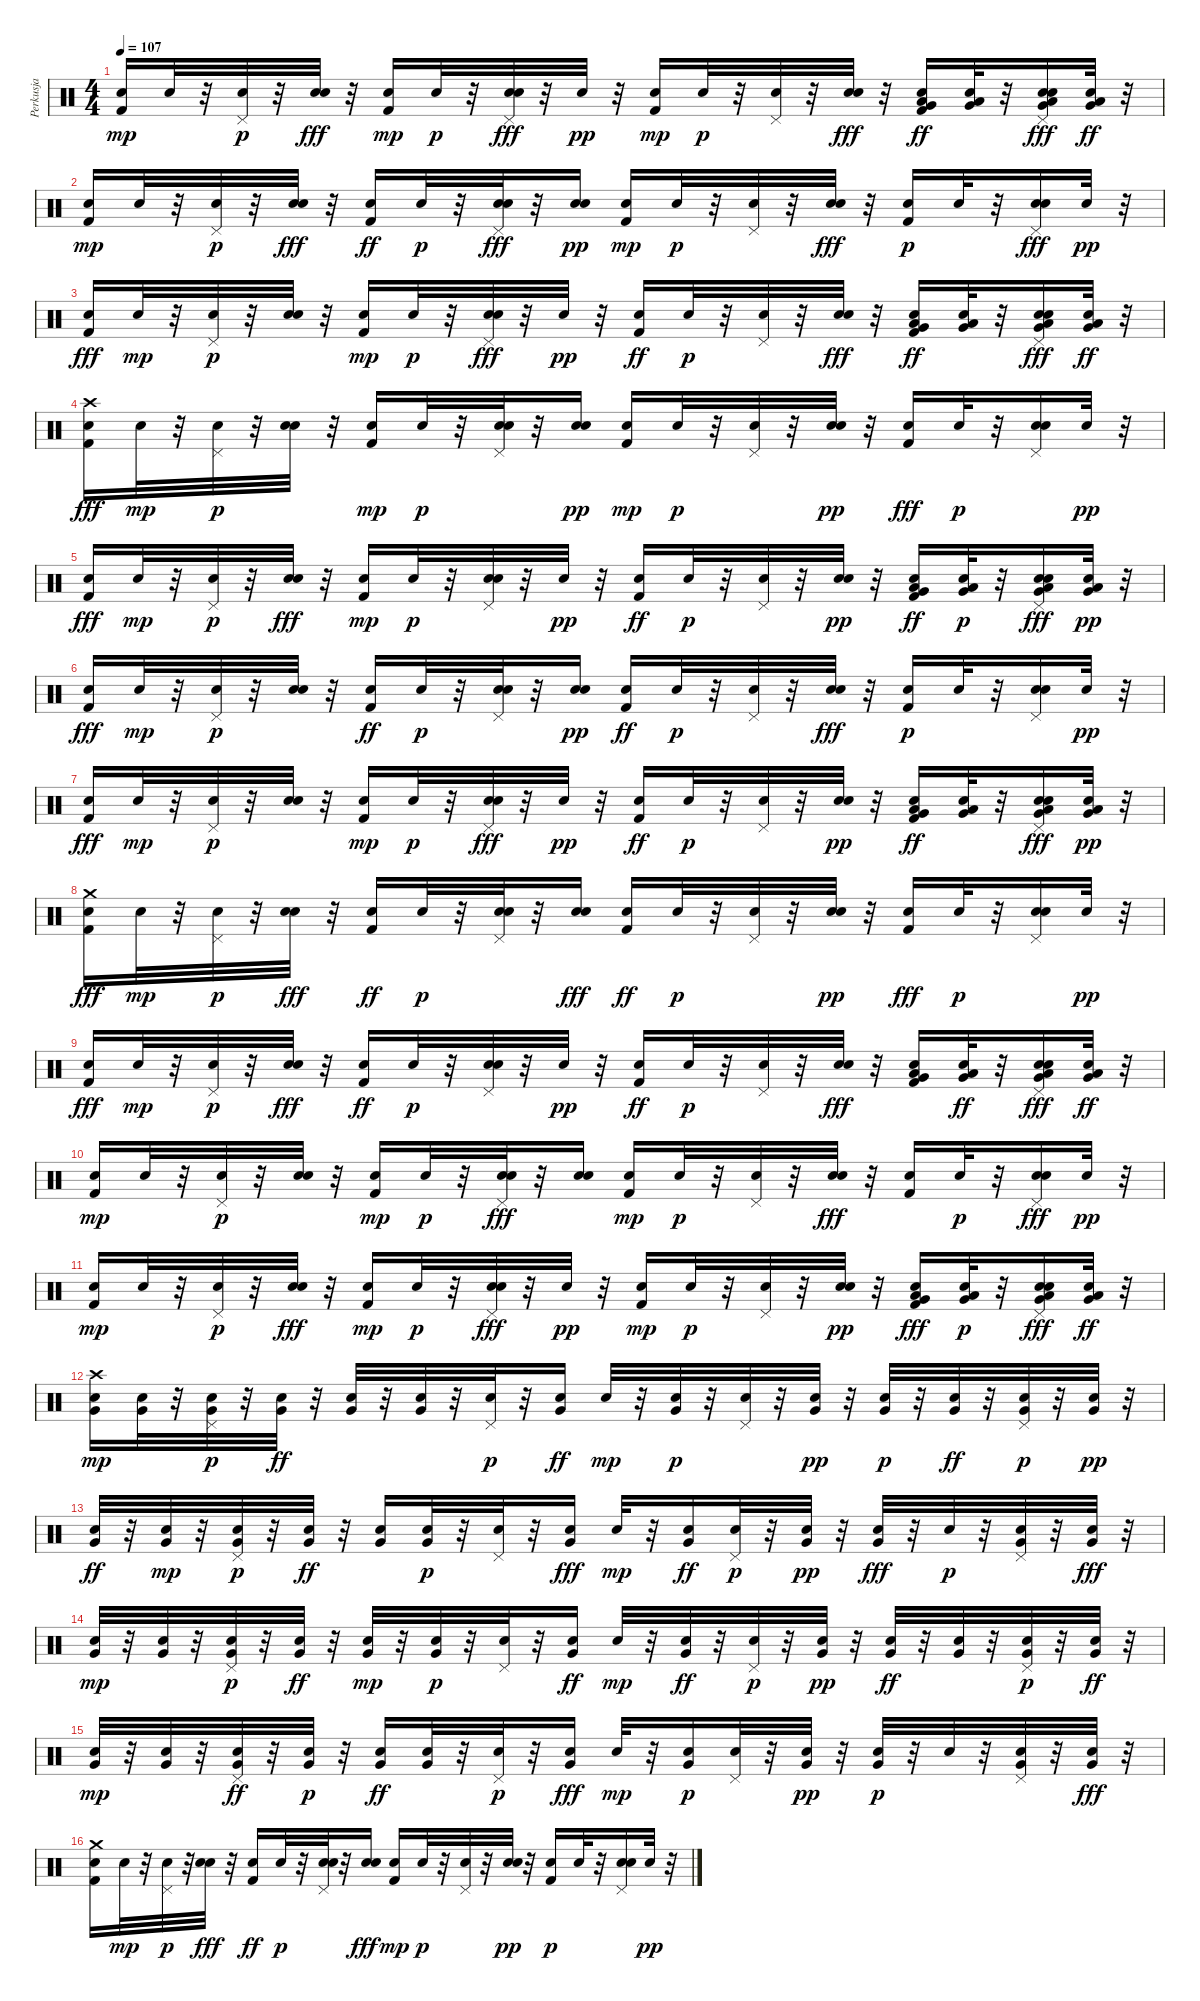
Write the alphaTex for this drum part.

\track ("Perkusja" "Perkusja") {instrument percussion}
\staff {score}
\articulation defaults
\ts (4 4)
\tempo 107
\clef neutral
\ks c
("Kick (hit) 2" "Snare (hit) 2").16{dy mp} "Snare (hit) 2".32 r.32 ("Pedal Hi-Hat (hit)" "Snare (hit) 2").32{dy p} r.32 ("Snare (hit) 2" "Electric Snare (hit)").32{dy fff} r.32 ("Kick (hit) 2" "Snare (hit) 2").16{dy mp} "Snare (hit) 2".32{dy p} r.32 ("Pedal Hi-Hat (hit)" "Snare (hit) 2" "Electric Snare (hit)").32{dy fff} r.32 "Snare (hit) 2".32{dy pp} r.32 ("Kick (hit) 2" "Snare (hit) 2").16{dy mp} "Snare (hit) 2".32{dy p} r.32 ("Snare (hit) 2" "Pedal Hi-Hat (hit)").32 r.32 ("Snare (hit) 2" "Electric Snare (hit)").32{dy fff} r.32 ("Low Floor Tom (hit)" "Kick (hit) 2" "Snare (hit) 2" "Very Low Tom (hit)").16{dy ff} ("Snare (hit) 2" "Very Low Tom (hit)" "Low Floor Tom (hit)").32 r.32 ("Snare (hit) 2" "Pedal Hi-Hat (hit)" "Very Low Tom (hit)" "Low Floor Tom (hit)" "Electric Snare (hit)").16{dy fff} ("Very Low Tom (hit)" "Snare (hit) 2" "Low Floor Tom (hit)").32{dy ff} r.32 |
("Kick (hit) 2" "Snare (hit) 2").16{dy mp} "Snare (hit) 2".32 r.32 ("Snare (hit) 2" "Pedal Hi-Hat (hit)").32{dy p} r.32 ("Snare (hit) 2" "Electric Snare (hit)").32{dy fff} r.32 ("Snare (hit) 2" "Kick (hit) 2").16{dy ff} "Snare (hit) 2".32{dy p} r.32 ("Snare (hit) 2" "Electric Snare (hit)" "Pedal Hi-Hat (hit)").32{dy fff} r.32 ("Electric Snare (hit)" "Snare (hit) 2").16{dy pp} ("Kick (hit) 2" "Snare (hit) 2").16{dy mp} "Snare (hit) 2".32{dy p} r.32 ("Pedal Hi-Hat (hit)" "Snare (hit) 2").32 r.32 ("Snare (hit) 2" "Electric Snare (hit)").32{dy fff} r.32 ("Kick (hit) 2" "Snare (hit) 2").16{dy p} "Snare (hit) 2".32 r.32 ("Snare (hit) 2" "Electric Snare (hit)" "Pedal Hi-Hat (hit)").16{dy fff} "Snare (hit) 2".32{dy pp} r.32 |
("Snare (hit) 2" "Kick (hit) 2").16{dy fff} "Snare (hit) 2".32{dy mp} r.32 ("Snare (hit) 2" "Pedal Hi-Hat (hit)").32{dy p} r.32 ("Electric Snare (hit)" "Snare (hit) 2").32 r.32 ("Kick (hit) 2" "Snare (hit) 2").16{dy mp} "Snare (hit) 2".32{dy p} r.32 ("Snare (hit) 2" "Pedal Hi-Hat (hit)" "Electric Snare (hit)").32{dy fff} r.32 "Snare (hit) 2".32{dy pp} r.32 ("Snare (hit) 2" "Kick (hit) 2").16{dy ff} "Snare (hit) 2".32{dy p} r.32 ("Pedal Hi-Hat (hit)" "Snare (hit) 2").32 r.32 ("Snare (hit) 2" "Electric Snare (hit)").32{dy fff} r.32 ("Kick (hit) 2" "Snare (hit) 2" "Low Floor Tom (hit)" "Very Low Tom (hit)").16{dy ff} ("Snare (hit) 2" "Low Floor Tom (hit)" "Very Low Tom (hit)").32 r.32 ("Pedal Hi-Hat (hit)" "Electric Snare (hit)" "Snare (hit) 2" "Low Floor Tom (hit)" "Very Low Tom (hit)").16{dy fff} ("Snare (hit) 2" "Very Low Tom (hit)" "Low Floor Tom (hit)").32{dy ff} r.32 |
("Crash high (hit)" "Snare (hit) 2" "Kick (hit) 2").16{dy fff} "Snare (hit) 2".32{dy mp} r.32 ("Snare (hit) 2" "Pedal Hi-Hat (hit)").32{dy p} r.32 ("Electric Snare (hit)" "Snare (hit) 2").32 r.32 ("Kick (hit) 2" "Snare (hit) 2").16{dy mp} "Snare (hit) 2".32{dy p} r.32 ("Pedal Hi-Hat (hit)" "Electric Snare (hit)" "Snare (hit) 2").32 r.32 ("Electric Snare (hit)" "Snare (hit) 2").16{dy pp} ("Kick (hit) 2" "Snare (hit) 2").16{dy mp} "Snare (hit) 2".32{dy p} r.32 ("Snare (hit) 2" "Pedal Hi-Hat (hit)").32 r.32 ("Electric Snare (hit)" "Snare (hit) 2").32{dy pp} r.32 ("Snare (hit) 2" "Kick (hit) 2").16{dy fff} "Snare (hit) 2".32{dy p} r.32 ("Electric Snare (hit)" "Snare (hit) 2" "Pedal Hi-Hat (hit)").16 "Snare (hit) 2".32{dy pp} r.32 |
("Snare (hit) 2" "Kick (hit) 2").16{dy fff} "Snare (hit) 2".32{dy mp} r.32 ("Pedal Hi-Hat (hit)" "Snare (hit) 2").32{dy p} r.32 ("Snare (hit) 2" "Electric Snare (hit)").32{dy fff} r.32 ("Kick (hit) 2" "Snare (hit) 2").16{dy mp} "Snare (hit) 2".32{dy p} r.32 ("Electric Snare (hit)" "Snare (hit) 2" "Pedal Hi-Hat (hit)").32 r.32 "Snare (hit) 2".32{dy pp} r.32 ("Snare (hit) 2" "Kick (hit) 2").16{dy ff} "Snare (hit) 2".32{dy p} r.32 ("Pedal Hi-Hat (hit)" "Snare (hit) 2").32 r.32 ("Electric Snare (hit)" "Snare (hit) 2").32{dy pp} r.32 ("Low Floor Tom (hit)" "Snare (hit) 2" "Kick (hit) 2" "Very Low Tom (hit)").16{dy ff} ("Low Floor Tom (hit)" "Very Low Tom (hit)" "Snare (hit) 2").32{dy p} r.32 ("Electric Snare (hit)" "Pedal Hi-Hat (hit)" "Snare (hit) 2" "Very Low Tom (hit)" "Low Floor Tom (hit)").16{dy fff} ("Very Low Tom (hit)" "Low Floor Tom (hit)" "Snare (hit) 2").32{dy pp} r.32 |
("Snare (hit) 2" "Kick (hit) 2").16{dy fff} "Snare (hit) 2".32{dy mp} r.32 ("Pedal Hi-Hat (hit)" "Snare (hit) 2").32{dy p} r.32 ("Electric Snare (hit)" "Snare (hit) 2").32 r.32 ("Snare (hit) 2" "Kick (hit) 2").16{dy ff} "Snare (hit) 2".32{dy p} r.32 ("Pedal Hi-Hat (hit)" "Electric Snare (hit)" "Snare (hit) 2").32 r.32 ("Electric Snare (hit)" "Snare (hit) 2").16{dy pp} ("Snare (hit) 2" "Kick (hit) 2").16{dy ff} "Snare (hit) 2".32{dy p} r.32 ("Snare (hit) 2" "Pedal Hi-Hat (hit)").32 r.32 ("Snare (hit) 2" "Electric Snare (hit)").32{dy fff} r.32 ("Kick (hit) 2" "Snare (hit) 2").16{dy p} "Snare (hit) 2".32 r.32 ("Electric Snare (hit)" "Pedal Hi-Hat (hit)" "Snare (hit) 2").16 "Snare (hit) 2".32{dy pp} r.32 |
("Snare (hit) 2" "Kick (hit) 2").16{dy fff} "Snare (hit) 2".32{dy mp} r.32 ("Snare (hit) 2" "Pedal Hi-Hat (hit)").32{dy p} r.32 ("Electric Snare (hit)" "Snare (hit) 2").32 r.32 ("Kick (hit) 2" "Snare (hit) 2").16{dy mp} "Snare (hit) 2".32{dy p} r.32 ("Pedal Hi-Hat (hit)" "Snare (hit) 2" "Electric Snare (hit)").32{dy fff} r.32 "Snare (hit) 2".32{dy pp} r.32 ("Snare (hit) 2" "Kick (hit) 2").16{dy ff} "Snare (hit) 2".32{dy p} r.32 ("Snare (hit) 2" "Pedal Hi-Hat (hit)").32 r.32 ("Electric Snare (hit)" "Snare (hit) 2").32{dy pp} r.32 ("Low Floor Tom (hit)" "Kick (hit) 2" "Snare (hit) 2" "Very Low Tom (hit)").16{dy ff} ("Snare (hit) 2" "Low Floor Tom (hit)" "Very Low Tom (hit)").32 r.32 ("Electric Snare (hit)" "Pedal Hi-Hat (hit)" "Very Low Tom (hit)" "Snare (hit) 2" "Low Floor Tom (hit)").16{dy fff} ("Very Low Tom (hit)" "Low Floor Tom (hit)" "Snare (hit) 2").32{dy pp} r.32 |
("Crash medium (hit)" "Snare (hit) 2" "Kick (hit) 2").16{dy fff} "Snare (hit) 2".32{dy mp} r.32 ("Pedal Hi-Hat (hit)" "Snare (hit) 2").32{dy p} r.32 ("Snare (hit) 2" "Electric Snare (hit)").32{dy fff} r.32 ("Snare (hit) 2" "Kick (hit) 2").16{dy ff} "Snare (hit) 2".32{dy p} r.32 ("Electric Snare (hit)" "Pedal Hi-Hat (hit)" "Snare (hit) 2").32 r.32 ("Snare (hit) 2" "Electric Snare (hit)").16{dy fff} ("Snare (hit) 2" "Kick (hit) 2").16{dy ff} "Snare (hit) 2".32{dy p} r.32 ("Snare (hit) 2" "Pedal Hi-Hat (hit)").32 r.32 ("Electric Snare (hit)" "Snare (hit) 2").32{dy pp} r.32 ("Snare (hit) 2" "Kick (hit) 2").16{dy fff} "Snare (hit) 2".32{dy p} r.32 ("Electric Snare (hit)" "Snare (hit) 2" "Pedal Hi-Hat (hit)").16 "Snare (hit) 2".32{dy pp} r.32 |
("Snare (hit) 2" "Kick (hit) 2").16{dy fff} "Snare (hit) 2".32{dy mp} r.32 ("Snare (hit) 2" "Pedal Hi-Hat (hit)").32{dy p} r.32 ("Snare (hit) 2" "Electric Snare (hit)").32{dy fff} r.32 ("Snare (hit) 2" "Kick (hit) 2").16{dy ff} "Snare (hit) 2".32{dy p} r.32 ("Pedal Hi-Hat (hit)" "Electric Snare (hit)" "Snare (hit) 2").32 r.32 "Snare (hit) 2".32{dy pp} r.32 ("Snare (hit) 2" "Kick (hit) 2").16{dy ff} "Snare (hit) 2".32{dy p} r.32 ("Pedal Hi-Hat (hit)" "Snare (hit) 2").32 r.32 ("Snare (hit) 2" "Electric Snare (hit)").32{dy fff} r.32 ("Snare (hit) 2" "Kick (hit) 2" "Very Low Tom (hit)" "Low Floor Tom (hit)").16 ("Snare (hit) 2" "Very Low Tom (hit)" "Low Floor Tom (hit)").32{dy ff} r.32 ("Very Low Tom (hit)" "Low Floor Tom (hit)" "Snare (hit) 2" "Electric Snare (hit)" "Pedal Hi-Hat (hit)").16{dy fff} ("Low Floor Tom (hit)" "Snare (hit) 2" "Very Low Tom (hit)").32{dy ff} r.32 |
("Kick (hit) 2" "Snare (hit) 2").16{dy mp} "Snare (hit) 2".32 r.32 ("Pedal Hi-Hat (hit)" "Snare (hit) 2").32{dy p} r.32 ("Electric Snare (hit)" "Snare (hit) 2").32 r.32 ("Kick (hit) 2" "Snare (hit) 2").16{dy mp} "Snare (hit) 2".32{dy p} r.32 ("Snare (hit) 2" "Pedal Hi-Hat (hit)" "Electric Snare (hit)").32{dy fff} r.32 ("Snare (hit) 2" "Electric Snare (hit)").16 ("Kick (hit) 2" "Snare (hit) 2").16{dy mp} "Snare (hit) 2".32{dy p} r.32 ("Snare (hit) 2" "Pedal Hi-Hat (hit)").32 r.32 ("Snare (hit) 2" "Electric Snare (hit)").32{dy fff} r.32 ("Snare (hit) 2" "Kick (hit) 2").16 "Snare (hit) 2".32{dy p} r.32 ("Snare (hit) 2" "Pedal Hi-Hat (hit)" "Electric Snare (hit)").16{dy fff} "Snare (hit) 2".32{dy pp} r.32 |
("Kick (hit) 2" "Snare (hit) 2").16{dy mp} "Snare (hit) 2".32 r.32 ("Pedal Hi-Hat (hit)" "Snare (hit) 2").32{dy p} r.32 ("Snare (hit) 2" "Electric Snare (hit)").32{dy fff} r.32 ("Kick (hit) 2" "Snare (hit) 2").16{dy mp} "Snare (hit) 2".32{dy p} r.32 ("Snare (hit) 2" "Electric Snare (hit)" "Pedal Hi-Hat (hit)").32{dy fff} r.32 "Snare (hit) 2".32{dy pp} r.32 ("Kick (hit) 2" "Snare (hit) 2").16{dy mp} "Snare (hit) 2".32{dy p} r.32 ("Pedal Hi-Hat (hit)" "Snare (hit) 2").32 r.32 ("Electric Snare (hit)" "Snare (hit) 2").32{dy pp} r.32 ("Kick (hit) 2" "Very Low Tom (hit)" "Snare (hit) 2" "Low Floor Tom (hit)").16{dy fff} ("Low Floor Tom (hit)" "Very Low Tom (hit)" "Snare (hit) 2").32{dy p} r.32 ("Pedal Hi-Hat (hit)" "Snare (hit) 2" "Very Low Tom (hit)" "Low Floor Tom (hit)" "Electric Snare (hit)").16{dy fff} ("Snare (hit) 2" "Very Low Tom (hit)" "Low Floor Tom (hit)").32{dy ff} r.32 |
("Very Low Tom (hit)" "Crash high (hit)" "Snare (hit) 2").16{dy mp} ("Snare (hit) 2" "Very Low Tom (hit)").32 r.32 ("Very Low Tom (hit)" "Pedal Hi-Hat (hit)" "Snare (hit) 2").32{dy p} r.32 ("Snare (hit) 2" "Very Low Tom (hit)").32{dy ff} r.32 ("Snare (hit) 2" "Very Low Tom (hit)").32 r.32 ("Snare (hit) 2" "Very Low Tom (hit)").32 r.32 ("Snare (hit) 2" "Pedal Hi-Hat (hit)").32{dy p} r.32 ("Snare (hit) 2" "Very Low Tom (hit)").16{dy ff} "Snare (hit) 2".32{dy mp} r.32 ("Very Low Tom (hit)" "Snare (hit) 2").32{dy p} r.32 ("Snare (hit) 2" "Pedal Hi-Hat (hit)").32 r.32 ("Very Low Tom (hit)" "Snare (hit) 2").32{dy pp} r.32 ("Very Low Tom (hit)" "Snare (hit) 2").32{dy p} r.32 ("Snare (hit) 2" "Very Low Tom (hit)").32{dy ff} r.32 ("Snare (hit) 2" "Very Low Tom (hit)" "Pedal Hi-Hat (hit)").32{dy p} r.32 ("Very Low Tom (hit)" "Snare (hit) 2").32{dy pp} r.32 |
("Snare (hit) 2" "Very Low Tom (hit)").32{dy ff} r.32 ("Snare (hit) 2" "Very Low Tom (hit)").32{dy mp} r.32 ("Very Low Tom (hit)" "Pedal Hi-Hat (hit)" "Snare (hit) 2").32{dy p} r.32 ("Snare (hit) 2" "Very Low Tom (hit)").32{dy ff} r.32 ("Snare (hit) 2" "Very Low Tom (hit)").16 ("Very Low Tom (hit)" "Snare (hit) 2").32{dy p} r.32 ("Snare (hit) 2" "Pedal Hi-Hat (hit)").32 r.32 ("Snare (hit) 2" "Very Low Tom (hit)").16{dy fff} "Snare (hit) 2".32{dy mp} r.32 ("Snare (hit) 2" "Very Low Tom (hit)").16{dy ff} ("Snare (hit) 2" "Pedal Hi-Hat (hit)").32{dy p} r.32 ("Very Low Tom (hit)" "Snare (hit) 2").32{dy pp} r.32 ("Snare (hit) 2" "Very Low Tom (hit)").32{dy fff} r.32 "Snare (hit) 2".32{dy p} r.32 ("Very Low Tom (hit)" "Pedal Hi-Hat (hit)" "Snare (hit) 2").32 r.32 ("Snare (hit) 2" "Very Low Tom (hit)").32{dy fff} r.32 |
("Very Low Tom (hit)" "Snare (hit) 2").32{dy mp} r.32 ("Snare (hit) 2" "Very Low Tom (hit)").32 r.32 ("Pedal Hi-Hat (hit)" "Very Low Tom (hit)" "Snare (hit) 2").32{dy p} r.32 ("Snare (hit) 2" "Very Low Tom (hit)").32{dy ff} r.32 ("Very Low Tom (hit)" "Snare (hit) 2").32{dy mp} r.32 ("Very Low Tom (hit)" "Snare (hit) 2").32{dy p} r.32 ("Snare (hit) 2" "Pedal Hi-Hat (hit)").32 r.32 ("Snare (hit) 2" "Very Low Tom (hit)").16{dy ff} "Snare (hit) 2".32{dy mp} r.32 ("Snare (hit) 2" "Very Low Tom (hit)").32{dy ff} r.32 ("Pedal Hi-Hat (hit)" "Snare (hit) 2").32{dy p} r.32 ("Snare (hit) 2" "Very Low Tom (hit)").32{dy pp} r.32 ("Snare (hit) 2" "Very Low Tom (hit)").32{dy ff} r.32 ("Snare (hit) 2" "Very Low Tom (hit)").32 r.32 ("Snare (hit) 2" "Pedal Hi-Hat (hit)" "Very Low Tom (hit)").32{dy p} r.32 ("Snare (hit) 2" "Very Low Tom (hit)").32{dy ff} r.32 |
("Very Low Tom (hit)" "Snare (hit) 2").32{dy mp} r.32 ("Snare (hit) 2" "Very Low Tom (hit)").32 r.32 ("Snare (hit) 2" "Pedal Hi-Hat (hit)" "Very Low Tom (hit)").32{dy ff} r.32 ("Very Low Tom (hit)" "Snare (hit) 2").32{dy p} r.32 ("Snare (hit) 2" "Very Low Tom (hit)").16{dy ff} ("Snare (hit) 2" "Very Low Tom (hit)").32 r.32 ("Snare (hit) 2" "Pedal Hi-Hat (hit)").32{dy p} r.32 ("Snare (hit) 2" "Very Low Tom (hit)").16{dy fff} "Snare (hit) 2".32{dy mp} r.32 ("Very Low Tom (hit)" "Snare (hit) 2").16{dy p} ("Snare (hit) 2" "Pedal Hi-Hat (hit)").32 r.32 ("Very Low Tom (hit)" "Snare (hit) 2").32{dy pp} r.32 ("Very Low Tom (hit)" "Snare (hit) 2").32{dy p} r.32 "Snare (hit) 2".32 r.32 ("Pedal Hi-Hat (hit)" "Very Low Tom (hit)" "Snare (hit) 2").32 r.32 ("Snare (hit) 2" "Very Low Tom (hit)").32{dy fff} r.32 |
("Crash medium (hit)" "Snare (hit) 2" "Kick (hit) 2").16 "Snare (hit) 2".32{dy mp} r.32 ("Pedal Hi-Hat (hit)" "Snare (hit) 2").32{dy p} r.32 ("Snare (hit) 2" "Electric Snare (hit)").32{dy fff} r.32 ("Snare (hit) 2" "Kick (hit) 2").16{dy ff} "Snare (hit) 2".32{dy p} r.32 ("Electric Snare (hit)" "Snare (hit) 2" "Pedal Hi-Hat (hit)").32 r.32 ("Snare (hit) 2" "Electric Snare (hit)").16{dy fff} ("Kick (hit) 2" "Snare (hit) 2").16{dy mp} "Snare (hit) 2".32{dy p} r.32 ("Pedal Hi-Hat (hit)" "Snare (hit) 2").32 r.32 ("Electric Snare (hit)" "Snare (hit) 2").32{dy pp} r.32 ("Kick (hit) 2" "Snare (hit) 2").16{dy p} "Snare (hit) 2".32 r.32 ("Electric Snare (hit)" "Pedal Hi-Hat (hit)" "Snare (hit) 2").16 "Snare (hit) 2".32{dy pp} r.32
